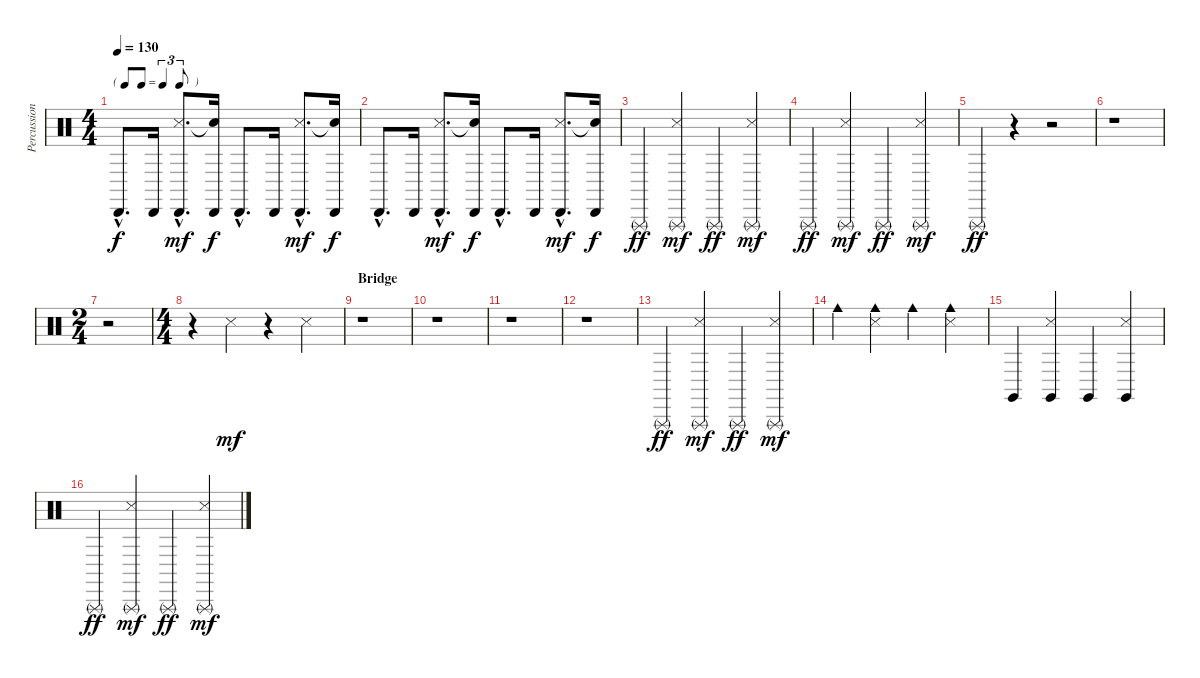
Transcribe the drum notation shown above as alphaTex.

\track ("Percussion" "Percussion") {instrument percussion}
\staff {score}
\articulation defaults
\ts (4 4)
\tf triplet8th
\tempo 130
\clef neutral
\ks c "Cabasa (hit)"{hac}.8{d dy f} "Cabasa (hit)".16
("Cabasa (hit)"{hac} "Snare (side stick) 3"{hac}).8{d dy mf} ("Cabasa (hit)" "Snare (hit)"{t}).16{dy f} "Cabasa (hit)"{hac}.8{d} "Cabasa (hit)".16 ("Cabasa (hit)"{hac} "Snare (side stick) 3"{hac}).8{d dy mf} ("Cabasa (hit)" "Snare (hit)"{t}).16{dy f} |
"Cabasa (hit)"{hac}.8{d} "Cabasa (hit)".16 ("Cabasa (hit)"{hac} "Snare (side stick) 3"{hac}).8{d dy mf} ("Cabasa (hit)" "Snare (hit)"{t}).16{dy f} "Cabasa (hit)"{hac}.8{d} "Cabasa (hit)".16 ("Cabasa (hit)"{hac} "Snare (side stick) 3"{hac}).8{d dy mf} ("Cabasa (hit)" "Snare (hit)"{t}).16{dy f} |
"Triangle (rnute)".4{dy ff} ("Triangle (rnute)" "Snare (side stick) 3").4{dy mf} "Triangle (rnute)".4{dy ff} ("Triangle (rnute)" "Snare (side stick) 3").4{dy mf} |
"Triangle (rnute)".4{dy ff} ("Triangle (rnute)" "Snare (side stick) 3").4{dy mf} "Triangle (rnute)".4{dy ff} ("Triangle (rnute)" "Snare (side stick) 3").4{dy mf} |
"Triangle (rnute)".4{dy ff} r.4 r.2 |
r.1 |
\ts (2 4)
r.2 |
\ts (4 4)
r.4 "Snare (side stick) 3".4{dy mf} r.4 "Snare (side stick) 3".4 |
\section ("" "Bridge")
r.1 |
r.1 |
r.1 |
r.1 |
"Triangle (rnute)".4{dy ff} ("Triangle (rnute)" "Snare (side stick) 3").4{dy mf} "Triangle (rnute)".4{dy ff} ("Triangle (rnute)" "Snare (side stick) 3").4{dy mf} |
"Cowbell medium (hit)".4 ("Cowbell medium (hit)" "Snare (side stick) 3").4 "Cowbell medium (hit)".4 ("Cowbell medium (hit)" "Snare (side stick) 3").4 |
"Claves (hit)".4 ("Claves (hit)" "Snare (side stick) 3").4 "Claves (hit)".4 ("Claves (hit)" "Snare (side stick) 3").4 |
"Triangle (rnute)".4{dy ff} ("Triangle (rnute)" "Snare (side stick) 3").4{dy mf} "Triangle (rnute)".4{dy ff} ("Triangle (rnute)" "Snare (side stick) 3").4{dy mf}
